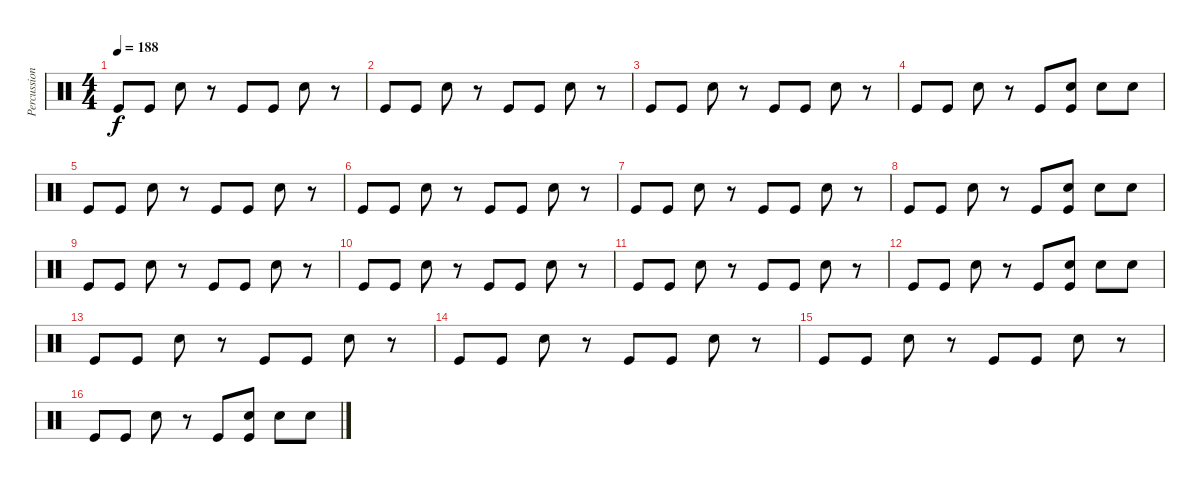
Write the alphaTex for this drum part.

\track ("Percussion" "Percussion") {instrument percussion}
\staff {score}
\articulation defaults
\ts (4 4)
\tempo 188
\clef neutral
\ks c "Kick (hit)".8{dy f} "Kick (hit)".8 "Snare (hit) 2".8
r.8 "Kick (hit)".8 "Kick (hit)".8 "Snare (hit) 2".8 r.8 |
"Kick (hit)".8 "Kick (hit)".8 "Snare (hit) 2".8 r.8 "Kick (hit)".8 "Kick (hit)".8 "Snare (hit) 2".8 r.8 |
"Kick (hit)".8 "Kick (hit)".8 "Snare (hit) 2".8 r.8 "Kick (hit)".8 "Kick (hit)".8 "Snare (hit) 2".8 r.8 |
"Kick (hit)".8 "Kick (hit)".8 "Snare (hit) 2".8 r.8 "Kick (hit)".8 ("Snare (hit) 2" "Kick (hit)").8 "Snare (hit) 2".8 "Snare (hit) 2".8 |
"Kick (hit)".8 "Kick (hit)".8 "Snare (hit) 2".8 r.8 "Kick (hit)".8 "Kick (hit)".8 "Snare (hit) 2".8 r.8 |
"Kick (hit)".8 "Kick (hit)".8 "Snare (hit) 2".8 r.8 "Kick (hit)".8 "Kick (hit)".8 "Snare (hit) 2".8 r.8 |
"Kick (hit)".8 "Kick (hit)".8 "Snare (hit) 2".8 r.8 "Kick (hit)".8 "Kick (hit)".8 "Snare (hit) 2".8 r.8 |
"Kick (hit)".8 "Kick (hit)".8 "Snare (hit) 2".8 r.8 "Kick (hit)".8 ("Snare (hit) 2" "Kick (hit)").8 "Snare (hit) 2".8 "Snare (hit) 2".8 |
"Kick (hit)".8 "Kick (hit)".8 "Snare (hit) 2".8 r.8 "Kick (hit)".8 "Kick (hit)".8 "Snare (hit) 2".8 r.8 |
"Kick (hit)".8 "Kick (hit)".8 "Snare (hit) 2".8 r.8 "Kick (hit)".8 "Kick (hit)".8 "Snare (hit) 2".8 r.8 |
"Kick (hit)".8 "Kick (hit)".8 "Snare (hit) 2".8 r.8 "Kick (hit)".8 "Kick (hit)".8 "Snare (hit) 2".8 r.8 |
"Kick (hit)".8 "Kick (hit)".8 "Snare (hit) 2".8 r.8 "Kick (hit)".8 ("Snare (hit) 2" "Kick (hit)").8 "Snare (hit) 2".8 "Snare (hit) 2".8 |
"Kick (hit)".8 "Kick (hit)".8 "Snare (hit) 2".8 r.8 "Kick (hit)".8 "Kick (hit)".8 "Snare (hit) 2".8 r.8 |
"Kick (hit)".8 "Kick (hit)".8 "Snare (hit) 2".8 r.8 "Kick (hit)".8 "Kick (hit)".8 "Snare (hit) 2".8 r.8 |
"Kick (hit)".8 "Kick (hit)".8 "Snare (hit) 2".8 r.8 "Kick (hit)".8 "Kick (hit)".8 "Snare (hit) 2".8 r.8 |
"Kick (hit)".8 "Kick (hit)".8 "Snare (hit) 2".8 r.8 "Kick (hit)".8 ("Snare (hit) 2" "Kick (hit)").8 "Snare (hit) 2".8 "Snare (hit) 2".8
